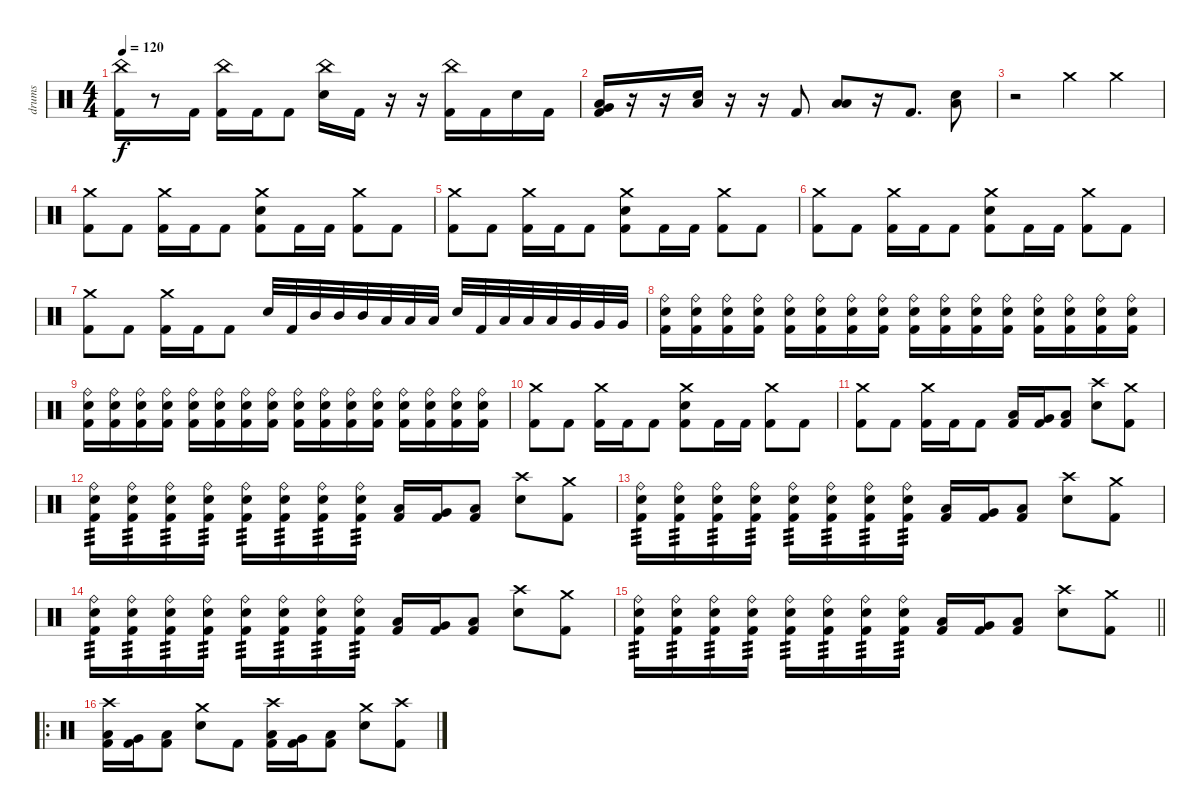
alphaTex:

\track ("drums" "drums") {instrument percussion}
\staff {score}
\articulation defaults
\ts (4 4)
\tempo 120
\clef neutral
\ks c
("China (hit)" "Kick (hit) 2").16{dy f} r.8 "Kick (hit) 2".16 ("China (hit)" "Kick (hit) 2").16 "Kick (hit) 2".16 "Kick (hit) 2".8 ("China (hit)" "Electric Snare (hit)").16 "Kick (hit) 2".16 r.16 r.16 ("China (hit)" "Kick (hit) 2").16 "Kick (hit) 2".16 "Electric Snare (hit)".16 "Kick (hit) 2".16 |
("Low Tom (hit)" "Very Low Tom (hit)" "Kick (hit) 2").16 r.16 r.16 ("Low Floor Tom (hit)" "Electric Snare (hit)").16 r.16 r.16 "Kick (hit) 2".8 ("Low Tom (hit)" "Low Floor Tom (hit)").8 r.16 "Kick (hit) 2".8{d} ("Low Floor Tom (hit)" "Electric Snare (hit)").8 |
r.2 "Crash medium (hit)".4 "Crash medium (hit)".4 |
("Crash medium (hit)" "Kick (hit) 2").8 "Kick (hit) 2".8 ("Crash medium (hit)" "Kick (hit) 2").16 "Kick (hit) 2".16 "Kick (hit) 2".8 ("Crash medium (hit)" "Electric Snare (hit)" "Kick (hit) 2").8 "Kick (hit) 2".16 "Kick (hit) 2".16 ("Crash medium (hit)" "Kick (hit) 2").8 "Kick (hit) 2".8 |
("Crash medium (hit)" "Kick (hit) 2").8 "Kick (hit) 2".8 ("Crash medium (hit)" "Kick (hit) 2").16 "Kick (hit) 2".16 "Kick (hit) 2".8 ("Crash medium (hit)" "Electric Snare (hit)" "Kick (hit) 2").8 "Kick (hit) 2".16 "Kick (hit) 2".16 ("Crash medium (hit)" "Kick (hit) 2").8 "Kick (hit) 2".8 |
("Crash medium (hit)" "Kick (hit) 2").8 "Kick (hit) 2".8 ("Crash medium (hit)" "Kick (hit) 2").16 "Kick (hit) 2".16 "Kick (hit) 2".8 ("Crash medium (hit)" "Electric Snare (hit)" "Kick (hit) 2").8 "Kick (hit) 2".16 "Kick (hit) 2".16 ("Crash medium (hit)" "Kick (hit) 2").8 "Kick (hit) 2".8 |
("Crash medium (hit)" "Kick (hit) 2").8 "Kick (hit) 2".8 ("Crash medium (hit)" "Kick (hit) 2").16 "Kick (hit) 2".16 "Kick (hit) 2".8 "Electric Snare (hit)".32 "Kick (hit) 2".32 "Mid Tom (hit)".32 "Mid Tom (hit)".32 "Mid Tom (hit)".32 "Low Tom (hit)".32 "Low Tom (hit)".32 "Low Tom (hit)".32 "Electric Snare (hit)".32 "Kick (hit) 2".32 "Low Tom (hit)".32 "Low Tom (hit)".32 "Low Tom (hit)".32 "Very Low Tom (hit)".32 "Very Low Tom (hit)".32 "Very Low Tom (hit)".32 |
("Ride (bell)" "Electric Snare (hit)" "Kick (hit) 2").16 ("Ride (bell)" "Electric Snare (hit)" "Kick (hit) 2").16 ("Ride (bell)" "Electric Snare (hit)" "Kick (hit) 2").16 ("Ride (bell)" "Electric Snare (hit)" "Kick (hit) 2").16 ("Ride (bell)" "Electric Snare (hit)" "Kick (hit) 2").16 ("Ride (bell)" "Electric Snare (hit)" "Kick (hit) 2").16 ("Ride (bell)" "Electric Snare (hit)" "Kick (hit) 2").16 ("Ride (bell)" "Electric Snare (hit)" "Kick (hit) 2").16 ("Ride (bell)" "Electric Snare (hit)" "Kick (hit) 2").16 ("Ride (bell)" "Electric Snare (hit)" "Kick (hit) 2").16 ("Ride (bell)" "Electric Snare (hit)" "Kick (hit) 2").16 ("Ride (bell)" "Electric Snare (hit)" "Kick (hit) 2").16 ("Ride (bell)" "Electric Snare (hit)" "Kick (hit) 2").16 ("Ride (bell)" "Electric Snare (hit)" "Kick (hit) 2").16 ("Ride (bell)" "Electric Snare (hit)" "Kick (hit) 2").16 ("Ride (bell)" "Electric Snare (hit)" "Kick (hit) 2").16 |
("Ride (bell)" "Electric Snare (hit)" "Kick (hit) 2").16 ("Ride (bell)" "Electric Snare (hit)" "Kick (hit) 2").16 ("Ride (bell)" "Electric Snare (hit)" "Kick (hit) 2").16 ("Ride (bell)" "Electric Snare (hit)" "Kick (hit) 2").16 ("Ride (bell)" "Electric Snare (hit)" "Kick (hit) 2").16 ("Ride (bell)" "Electric Snare (hit)" "Kick (hit) 2").16 ("Ride (bell)" "Electric Snare (hit)" "Kick (hit) 2").16 ("Ride (bell)" "Electric Snare (hit)" "Kick (hit) 2").16 ("Ride (bell)" "Electric Snare (hit)" "Kick (hit) 2").16 ("Ride (bell)" "Electric Snare (hit)" "Kick (hit) 2").16 ("Ride (bell)" "Electric Snare (hit)" "Kick (hit) 2").16 ("Ride (bell)" "Electric Snare (hit)" "Kick (hit) 2").16 ("Ride (bell)" "Electric Snare (hit)" "Kick (hit) 2").16 ("Ride (bell)" "Electric Snare (hit)" "Kick (hit) 2").16 ("Ride (bell)" "Electric Snare (hit)" "Kick (hit) 2").16 ("Ride (bell)" "Electric Snare (hit)" "Kick (hit) 2").16 |
("Crash medium (hit)" "Kick (hit) 2").8 "Kick (hit) 2".8 ("Crash medium (hit)" "Kick (hit) 2").16 "Kick (hit) 2".16 "Kick (hit) 2".8 ("Crash medium (hit)" "Electric Snare (hit)" "Kick (hit) 2").8 "Kick (hit) 2".16 "Kick (hit) 2".16 ("Crash medium (hit)" "Kick (hit) 2").8 "Kick (hit) 2".8 |
("Crash medium (hit)" "Kick (hit) 2").8 "Kick (hit) 2".8 ("Crash medium (hit)" "Kick (hit) 2").16 "Kick (hit) 2".16 "Kick (hit) 2".8 ("Low Tom (hit)" "Kick (hit) 2").16 ("Very Low Tom (hit)" "Kick (hit) 2").16 ("Low Tom (hit)" "Kick (hit) 2").8 ("Crash high (hit)" "Electric Snare (hit)").8 ("Crash medium (hit)" "Kick (hit) 2").8 |
("Ride (bell)" "Electric Snare (hit)" "Kick (hit) 2").16{tp 3} ("Ride (bell)" "Electric Snare (hit)" "Kick (hit) 2").16{tp 3} ("Ride (bell)" "Electric Snare (hit)" "Kick (hit) 2").16{tp 3} ("Ride (bell)" "Electric Snare (hit)" "Kick (hit) 2").16{tp 3} ("Ride (bell)" "Electric Snare (hit)" "Kick (hit) 2").16{tp 3} ("Ride (bell)" "Electric Snare (hit)" "Kick (hit) 2").16{tp 3} ("Ride (bell)" "Electric Snare (hit)" "Kick (hit) 2").16{tp 3} ("Ride (bell)" "Electric Snare (hit)" "Kick (hit) 2").16{tp 3} ("Low Tom (hit)" "Kick (hit) 2").16 ("Very Low Tom (hit)" "Kick (hit) 2").16 ("Low Tom (hit)" "Kick (hit) 2").8 ("Crash high (hit)" "Electric Snare (hit)").8 ("Crash medium (hit)" "Kick (hit) 2").8 |
("Ride (bell)" "Electric Snare (hit)" "Kick (hit) 2").16{tp 3} ("Ride (bell)" "Electric Snare (hit)" "Kick (hit) 2").16{tp 3} ("Ride (bell)" "Electric Snare (hit)" "Kick (hit) 2").16{tp 3} ("Ride (bell)" "Electric Snare (hit)" "Kick (hit) 2").16{tp 3} ("Ride (bell)" "Electric Snare (hit)" "Kick (hit) 2").16{tp 3} ("Ride (bell)" "Electric Snare (hit)" "Kick (hit) 2").16{tp 3} ("Ride (bell)" "Electric Snare (hit)" "Kick (hit) 2").16{tp 3} ("Ride (bell)" "Electric Snare (hit)" "Kick (hit) 2").16{tp 3} ("Low Tom (hit)" "Kick (hit) 2").16 ("Very Low Tom (hit)" "Kick (hit) 2").16 ("Low Tom (hit)" "Kick (hit) 2").8 ("Crash high (hit)" "Electric Snare (hit)").8 ("Crash medium (hit)" "Kick (hit) 2").8 |
("Ride (bell)" "Electric Snare (hit)" "Kick (hit) 2").16{tp 3} ("Ride (bell)" "Electric Snare (hit)" "Kick (hit) 2").16{tp 3} ("Ride (bell)" "Electric Snare (hit)" "Kick (hit) 2").16{tp 3} ("Ride (bell)" "Electric Snare (hit)" "Kick (hit) 2").16{tp 3} ("Ride (bell)" "Electric Snare (hit)" "Kick (hit) 2").16{tp 3} ("Ride (bell)" "Electric Snare (hit)" "Kick (hit) 2").16{tp 3} ("Ride (bell)" "Electric Snare (hit)" "Kick (hit) 2").16{tp 3} ("Ride (bell)" "Electric Snare (hit)" "Kick (hit) 2").16{tp 3} ("Low Tom (hit)" "Kick (hit) 2").16 ("Very Low Tom (hit)" "Kick (hit) 2").16 ("Low Tom (hit)" "Kick (hit) 2").8 ("Crash high (hit)" "Electric Snare (hit)").8 ("Crash medium (hit)" "Kick (hit) 2").8 |
\barLineRight lightlight
("Ride (bell)" "Electric Snare (hit)" "Kick (hit) 2").16{tp 3} ("Ride (bell)" "Electric Snare (hit)" "Kick (hit) 2").16{tp 3} ("Ride (bell)" "Electric Snare (hit)" "Kick (hit) 2").16{tp 3} ("Ride (bell)" "Electric Snare (hit)" "Kick (hit) 2").16{tp 3} ("Ride (bell)" "Electric Snare (hit)" "Kick (hit) 2").16{tp 3} ("Ride (bell)" "Electric Snare (hit)" "Kick (hit) 2").16{tp 3} ("Ride (bell)" "Electric Snare (hit)" "Kick (hit) 2").16{tp 3} ("Ride (bell)" "Electric Snare (hit)" "Kick (hit) 2").16{tp 3} ("Low Tom (hit)" "Kick (hit) 2").16 ("Very Low Tom (hit)" "Kick (hit) 2").16 ("Low Tom (hit)" "Kick (hit) 2").8 ("Crash high (hit)" "Electric Snare (hit)").8 ("Crash medium (hit)" "Kick (hit) 2").8 |
\ro
("Crash high (hit)" "Low Tom (hit)" "Kick (hit) 2").16 ("Very Low Tom (hit)" "Kick (hit) 2").16 ("Low Tom (hit)" "Kick (hit) 2").8 ("Crash medium (hit)" "Electric Snare (hit)").8 "Kick (hit) 2".8 ("Crash high (hit)" "Low Tom (hit)" "Kick (hit) 2").16 ("Very Low Tom (hit)" "Kick (hit) 2").16 ("Low Tom (hit)" "Kick (hit) 2").8 ("Crash medium (hit)" "Electric Snare (hit)").8 ("Crash high (hit)" "Kick (hit) 2").8
